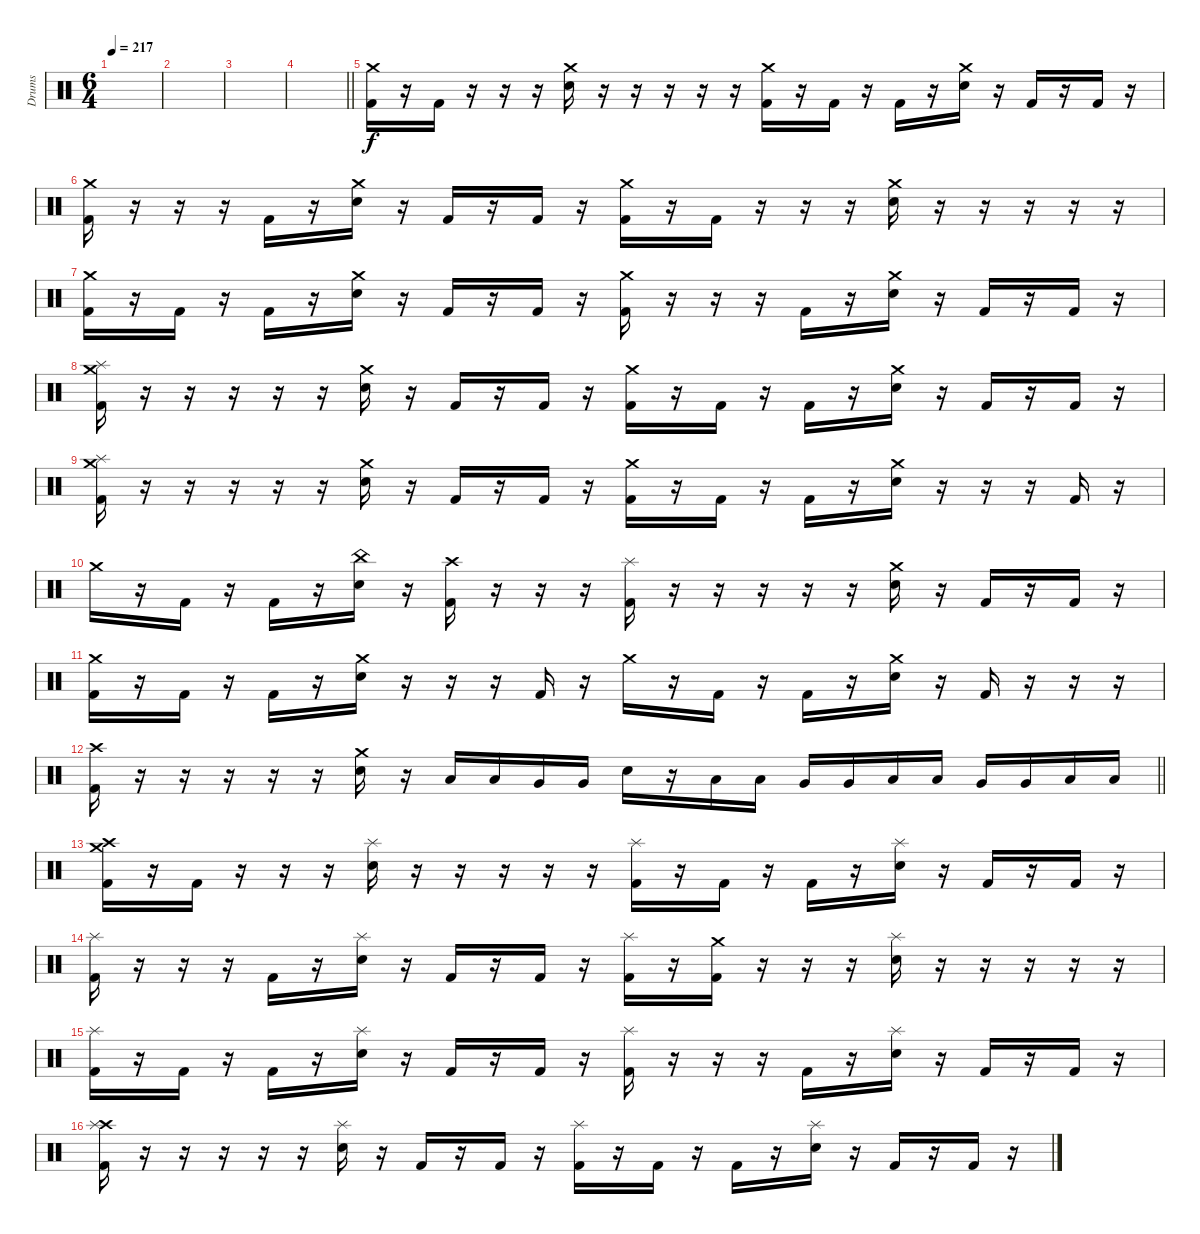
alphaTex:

\track ("Drums" "Drums") {instrument percussion}
\staff {score}
\articulation defaults
\ts (6 4)
\section ("" "")
\tempo 217
\clef neutral
\ks c
|
|
|
\barLineRight lightlight
|
\section ("" "")
("Crash medium (hit)" "Kick (hit) 2").16 r.16 "Kick (hit) 2".16 r.16 r.16 r.16 ("Crash medium (hit)" "Electric Snare (hit)").16 r.16 r.16 r.16 r.16 r.16 ("Crash medium (hit)" "Kick (hit) 2").16 r.16 "Kick (hit) 2".16 r.16 "Kick (hit) 2".16 r.16 ("Crash medium (hit)" "Electric Snare (hit)").16 r.16 "Kick (hit) 2".16 r.16 "Kick (hit) 2".16 r.16 |
("Crash medium (hit)" "Kick (hit) 2").16 r.16 r.16 r.16 "Kick (hit) 2".16 r.16 ("Crash medium (hit)" "Electric Snare (hit)").16 r.16 "Kick (hit) 2".16 r.16 "Kick (hit) 2".16 r.16 ("Crash medium (hit)" "Kick (hit) 2").16 r.16 "Kick (hit) 2".16 r.16 r.16 r.16 ("Crash medium (hit)" "Electric Snare (hit)").16 r.16 r.16 r.16 r.16 r.16 |
("Crash medium (hit)" "Kick (hit) 2").16 r.16 "Kick (hit) 2".16 r.16 "Kick (hit) 2".16 r.16 ("Crash medium (hit)" "Electric Snare (hit)").16 r.16 "Kick (hit) 2".16 r.16 "Kick (hit) 2".16 r.16 ("Crash medium (hit)" "Kick (hit) 2").16 r.16 r.16 r.16 "Kick (hit) 2".16 r.16 ("Crash medium (hit)" "Electric Snare (hit)").16 r.16 "Kick (hit) 2".16 r.16 "Kick (hit) 2".16 r.16 |
("Crash medium (hit)" "Splash (hit)" "Kick (hit) 2").16 r.16 r.16 r.16 r.16 r.16 ("Crash medium (hit)" "Electric Snare (hit)").16 r.16 "Kick (hit) 2".16 r.16 "Kick (hit) 2".16 r.16 ("Crash medium (hit)" "Kick (hit) 2").16 r.16 "Kick (hit) 2".16 r.16 "Kick (hit) 2".16 r.16 ("Crash medium (hit)" "Electric Snare (hit)").16 r.16 "Kick (hit) 2".16 r.16 "Kick (hit) 2".16 r.16 |
("Crash medium (hit)" "Splash (hit)" "Kick (hit) 2").16 r.16 r.16 r.16 r.16 r.16 ("Crash medium (hit)" "Electric Snare (hit)").16 r.16 "Kick (hit) 2".16 r.16 "Kick (hit) 2".16 r.16 ("Crash medium (hit)" "Kick (hit) 2").16 r.16 "Kick (hit) 2".16 r.16 "Kick (hit) 2".16 r.16 ("Crash medium (hit)" "Electric Snare (hit)").16 r.16 r.16 r.16 "Kick (hit) 2".16 r.16 |
"Crash medium (hit)".16 r.16 "Kick (hit) 2".16 r.16 "Kick (hit) 2".16 r.16 ("China (hit)" "Electric Snare (hit)").16 r.16 ("Crash high (hit)" "Kick (hit) 2").16 r.16 r.16 r.16 ("Splash (hit)" "Kick (hit) 2").16 r.16 r.16 r.16 r.16 r.16 ("Crash medium (hit)" "Electric Snare (hit)").16 r.16 "Kick (hit) 2".16 r.16 "Kick (hit) 2".16 r.16 |
("Crash medium (hit)" "Kick (hit) 2").16 r.16 "Kick (hit) 2".16 r.16 "Kick (hit) 2".16 r.16 ("Crash medium (hit)" "Electric Snare (hit)").16 r.16 r.16 r.16 "Kick (hit) 2".16 r.16 "Crash medium (hit)".16 r.16 "Kick (hit) 2".16 r.16 "Kick (hit) 2".16 r.16 ("Crash medium (hit)" "Electric Snare (hit)").16 r.16 "Kick (hit) 2".16 r.16 r.16 r.16 |
\barLineRight lightlight
("Crash high (hit)" "Kick (hit) 2").16 r.16 r.16 r.16 r.16 r.16 ("Crash medium (hit)" "Electric Snare (hit)").16 r.16 "Low Tom (hit)".16 "Low Tom (hit)".16 "Very Low Tom (hit)".16 "Very Low Tom (hit)".16 "Electric Snare (hit)".16 r.16 "Low Tom (hit)".16 "Low Tom (hit)".16 "Very Low Tom (hit)".16 "Very Low Tom (hit)".16 "Low Tom (hit)".16 "Low Tom (hit)".16 "Very Low Tom (hit)".16 "Very Low Tom (hit)".16 "Low Floor Tom (hit)".16 "Low Floor Tom (hit)".16 |
\section ("" "")
("Crash medium (hit)" "Crash high (hit)" "Kick (hit) 2").16 r.16 "Kick (hit) 2".16 r.16 r.16 r.16 ("Splash (hit)" "Electric Snare (hit)").16 r.16 r.16 r.16 r.16 r.16 ("Splash (hit)" "Kick (hit) 2").16 r.16 "Kick (hit) 2".16 r.16 "Kick (hit) 2".16 r.16 ("Splash (hit)" "Electric Snare (hit)").16 r.16 "Kick (hit) 2".16 r.16 "Kick (hit) 2".16 r.16 |
("Splash (hit)" "Kick (hit) 2").16 r.16 r.16 r.16 "Kick (hit) 2".16 r.16 ("Splash (hit)" "Electric Snare (hit)").16 r.16 "Kick (hit) 2".16 r.16 "Kick (hit) 2".16 r.16 ("Splash (hit)" "Kick (hit) 2").16 r.16 ("Crash medium (hit)" "Kick (hit) 2").16 r.16 r.16 r.16 ("Splash (hit)" "Electric Snare (hit)").16 r.16 r.16 r.16 r.16 r.16 |
("Splash (hit)" "Kick (hit) 2").16 r.16 "Kick (hit) 2".16 r.16 "Kick (hit) 2".16 r.16 ("Splash (hit)" "Electric Snare (hit)").16 r.16 "Kick (hit) 2".16 r.16 "Kick (hit) 2".16 r.16 ("Splash (hit)" "Kick (hit) 2").16 r.16 r.16 r.16 "Kick (hit) 2".16 r.16 ("Splash (hit)" "Electric Snare (hit)").16 r.16 "Kick (hit) 2".16 r.16 "Kick (hit) 2".16 r.16 |
("Crash high (hit)" "Splash (hit)" "Kick (hit) 2").16 r.16 r.16 r.16 r.16 r.16 ("Splash (hit)" "Electric Snare (hit)").16 r.16 "Kick (hit) 2".16 r.16 "Kick (hit) 2".16 r.16 ("Splash (hit)" "Kick (hit) 2").16 r.16 "Kick (hit) 2".16 r.16 "Kick (hit) 2".16 r.16 ("Splash (hit)" "Electric Snare (hit)").16 r.16 "Kick (hit) 2".16 r.16 "Kick (hit) 2".16 r.16
